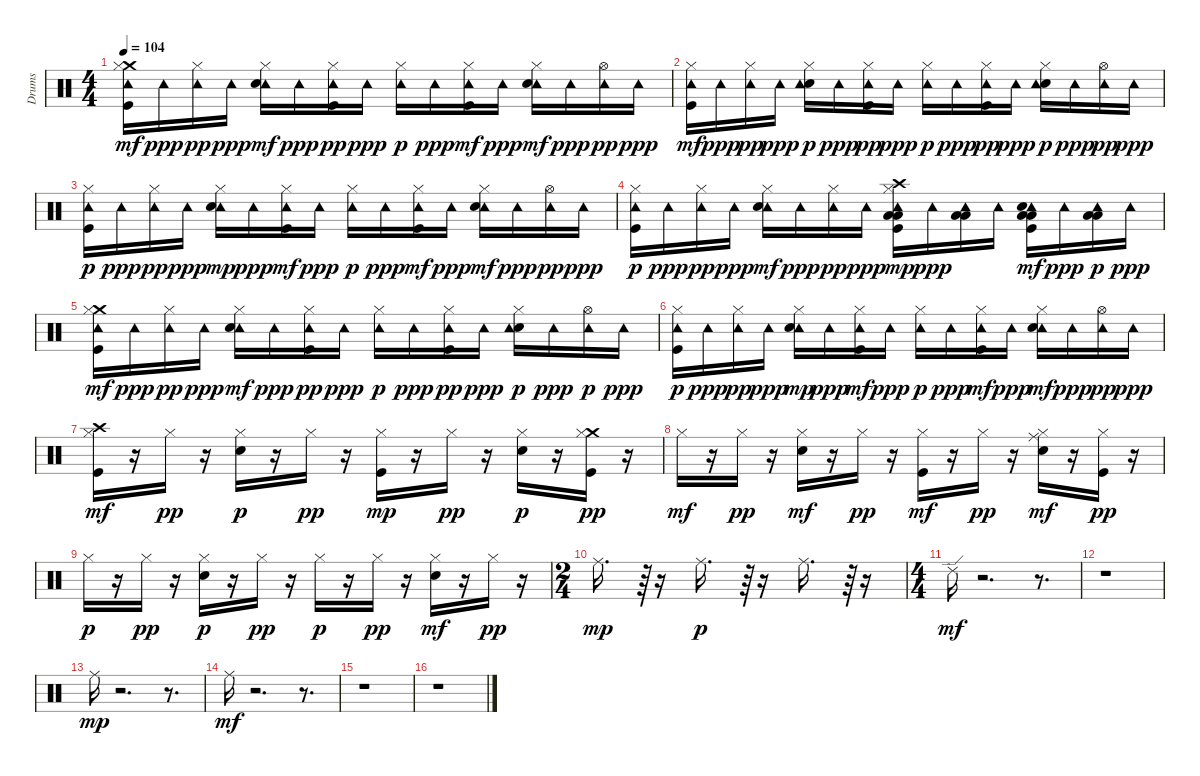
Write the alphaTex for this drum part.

\track ("Drums" "Drums") {instrument percussion}
\staff {score}
\articulation defaults
\ts (4 4)
\tempo 104
\clef neutral
\ks c
("Crash medium (hit)" "Tambourine (hit)" "Kick (hit)" "Hi-Hat (closed)").16{dy mf} "Tambourine (hit)".16{dy ppp} ("Hi-Hat (closed)" "Tambourine (hit)").16{dy pp} "Tambourine (hit)".16{dy ppp} ("Tambourine (hit)" "Hi-Hat (closed)" "Electric Snare (hit)").16{dy mf} "Tambourine (hit)".16{dy ppp} ("Tambourine (hit)" "Kick (hit)" "Hi-Hat (closed)").16{dy pp} "Tambourine (hit)".16{dy ppp} ("Hi-Hat (closed)" "Tambourine (hit)").16{dy p} "Tambourine (hit)".16{dy ppp} ("Hi-Hat (closed)" "Tambourine (hit)" "Kick (hit)").16{dy mf} "Tambourine (hit)".16{dy ppp} ("Hi-Hat (closed)" "Tambourine (hit)" "Electric Snare (hit)").16{dy mf} "Tambourine (hit)".16{dy ppp} ("Hi-Hat (open)" "Tambourine (hit)").16{dy pp} "Tambourine (hit)".16{dy ppp} |
("Tambourine (hit)" "Hi-Hat (closed)" "Kick (hit)").16{dy mf} "Tambourine (hit)".16{dy ppp} ("Tambourine (hit)" "Hi-Hat (closed)").16{dy pp} "Tambourine (hit)".16{dy ppp} ("Electric Snare (hit)" "Hi-Hat (closed)" "Tambourine (hit)").16{dy p} "Tambourine (hit)".16{dy ppp} ("Kick (hit)" "Tambourine (hit)" "Hi-Hat (closed)").16{dy pp} "Tambourine (hit)".16{dy ppp} ("Hi-Hat (closed)" "Tambourine (hit)").16{dy p} "Tambourine (hit)".16{dy ppp} ("Kick (hit)" "Hi-Hat (closed)" "Tambourine (hit)").16{dy pp} "Tambourine (hit)".16{dy ppp} ("Electric Snare (hit)" "Tambourine (hit)" "Hi-Hat (closed)").16{dy p} "Tambourine (hit)".16{dy ppp} ("Hi-Hat (open)" "Tambourine (hit)").16{dy pp} "Tambourine (hit)".16{dy ppp} |
("Kick (hit)" "Hi-Hat (closed)" "Tambourine (hit)").16{dy p} "Tambourine (hit)".16{dy ppp} ("Hi-Hat (closed)" "Tambourine (hit)").16{dy pp} "Tambourine (hit)".16{dy ppp} ("Tambourine (hit)" "Electric Snare (hit)" "Hi-Hat (closed)").16{dy mp} "Tambourine (hit)".16{dy ppp} ("Tambourine (hit)" "Hi-Hat (closed)" "Kick (hit)").16{dy mf} "Tambourine (hit)".16{dy ppp} ("Hi-Hat (closed)" "Tambourine (hit)").16{dy p} "Tambourine (hit)".16{dy ppp} ("Hi-Hat (closed)" "Tambourine (hit)" "Kick (hit)").16{dy mf} "Tambourine (hit)".16{dy ppp} ("Tambourine (hit)" "Hi-Hat (closed)" "Electric Snare (hit)").16{dy mf} "Tambourine (hit)".16{dy ppp} ("Hi-Hat (open)" "Tambourine (hit)").16{dy pp} "Tambourine (hit)".16{dy ppp} |
("Hi-Hat (closed)" "Kick (hit)" "Tambourine (hit)").16{dy p} "Tambourine (hit)".16{dy ppp} ("Tambourine (hit)" "Hi-Hat (closed)").16{dy pp} "Tambourine (hit)".16{dy ppp} ("Tambourine (hit)" "Hi-Hat (closed)" "Electric Snare (hit)").16{dy mf} "Tambourine (hit)".16{dy ppp} ("Hi-Hat (closed)" "Tambourine (hit)").16{dy pp} "Tambourine (hit)".16{dy ppp} ("Tambourine (hit)" "Low Floor Tom (hit)" "Kick (hit)" "Crash high (hit)" "Low Tom (hit)" "Hi-Hat (closed)").16{dy mp} "Tambourine (hit)".16{dy ppp} ("Tambourine (hit)" "Low Tom (hit)" "Low Floor Tom (hit)").16 "Tambourine (hit)".16 ("Tambourine (hit)" "Low Floor Tom (hit)" "Electric Snare (hit)" "Low Tom (hit)" "Kick (hit)").16{dy mf} "Tambourine (hit)".16{dy ppp} ("Low Floor Tom (hit)" "Tambourine (hit)" "Low Tom (hit)").16{dy p} "Tambourine (hit)".16{dy ppp} |
("Tambourine (hit)" "Crash medium (hit)" "Hi-Hat (closed)" "Kick (hit)").16{dy mf} "Tambourine (hit)".16{dy ppp} ("Tambourine (hit)" "Hi-Hat (closed)").16{dy pp} "Tambourine (hit)".16{dy ppp} ("Tambourine (hit)" "Hi-Hat (closed)" "Electric Snare (hit)").16{dy mf} "Tambourine (hit)".16{dy ppp} ("Hi-Hat (closed)" "Kick (hit)" "Tambourine (hit)").16{dy pp} "Tambourine (hit)".16{dy ppp} ("Hi-Hat (closed)" "Tambourine (hit)").16{dy p} "Tambourine (hit)".16{dy ppp} ("Kick (hit)" "Tambourine (hit)" "Hi-Hat (closed)").16{dy pp} "Tambourine (hit)".16{dy ppp} ("Hi-Hat (closed)" "Electric Snare (hit)" "Tambourine (hit)").16{dy p} "Tambourine (hit)".16{dy ppp} ("Tambourine (hit)" "Hi-Hat (open)").16{dy p} "Tambourine (hit)".16{dy ppp} |
("Hi-Hat (closed)" "Kick (hit)" "Tambourine (hit)").16{dy p} "Tambourine (hit)".16{dy ppp} ("Tambourine (hit)" "Hi-Hat (closed)").16{dy pp} "Tambourine (hit)".16{dy ppp} ("Tambourine (hit)" "Electric Snare (hit)" "Hi-Hat (closed)").16{dy mp} "Tambourine (hit)".16{dy ppp} ("Hi-Hat (closed)" "Tambourine (hit)" "Kick (hit)").16{dy mf} "Tambourine (hit)".16{dy ppp} ("Hi-Hat (closed)" "Tambourine (hit)").16{dy p} "Tambourine (hit)".16{dy ppp} ("Hi-Hat (closed)" "Tambourine (hit)" "Kick (hit)").16{dy mf} "Tambourine (hit)".16{dy ppp} ("Hi-Hat (closed)" "Tambourine (hit)" "Electric Snare (hit)").16{dy mf} "Tambourine (hit)".16{dy ppp} ("Hi-Hat (open)" "Tambourine (hit)").16{dy pp} "Tambourine (hit)".16{dy ppp} |
("Kick (hit)" "Hi-Hat (closed)" "Crash high (hit)").16{dy mf} r.16 "Hi-Hat (closed)".16{dy pp} r.16 ("Electric Snare (hit)" "Hi-Hat (closed)").16{dy p} r.16 "Hi-Hat (closed)".16{dy pp} r.16 ("Hi-Hat (closed)" "Kick (hit)").16{dy mp} r.16 "Hi-Hat (closed)".16{dy pp} r.16 ("Electric Snare (hit)" "Hi-Hat (closed)").16{dy p} r.16 ("Kick (hit)" "Crash medium (hit)" "Hi-Hat (closed)").16{dy pp} r.16 |
"Hi-Hat (closed)".16{dy mf} r.16 "Hi-Hat (closed)".16{dy pp} r.16 ("Hi-Hat (closed)" "Electric Snare (hit)").16{dy mf} r.16 "Hi-Hat (closed)".16{dy pp} r.16 ("Kick (hit)" "Hi-Hat (closed)").16{dy mf} r.16 "Hi-Hat (closed)".16{dy pp} r.16 ("Hi-Hat (closed)" "Electric Snare (hit)" "Ride (middle)").16{dy mf} r.16 ("Kick (hit)" "Hi-Hat (closed)").16{dy pp} r.16 |
"Hi-Hat (closed)".16{dy p} r.16 "Hi-Hat (closed)".16{dy pp} r.16 ("Electric Snare (hit)" "Hi-Hat (closed)").16{dy p} r.16 "Hi-Hat (closed)".16{dy pp} r.16 "Hi-Hat (closed)".16{dy p} r.16 "Hi-Hat (closed)".16{dy pp} r.16 ("Hi-Hat (closed)" "Electric Snare (hit)").16{dy mf} r.16 "Hi-Hat (closed)".16{dy pp} r.16 |
\ts (2 4)
"Ride (middle)".16{d dy mp} r.64{tu (3 2)} r.16 "Ride (middle)".16{d dy p} r.64{tu (3 2)} r.16 "Ride (middle)".16{d} r.64{tu (3 2)} r.16 |
\ts (4 4)
"Ride (edge) 2".16{dy mf} r.2{d} r.8{d} |
r.1 |
"Ride (middle)".16{dy mp} r.2{d} r.8{d} |
"Ride (middle)".16{dy mf} r.2{d} r.8{d} |
r.1 |
r.1
